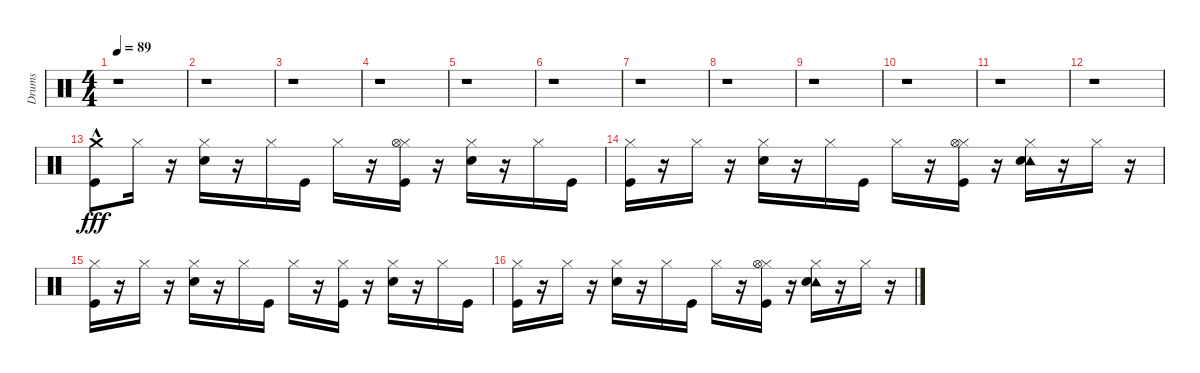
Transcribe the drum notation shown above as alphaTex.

\track ("Drums" "Drums") {instrument percussion}
\staff {score}
\articulation defaults
\ts (4 4)
\tempo 89
\clef neutral
\ks c
r.1{dy fff} |
r.1 |
r.1 |
r.1 |
r.1 |
r.1 |
r.1 |
r.1 |
r.1 |
r.1 |
r.1 |
r.1 |
("Crash medium (hit)"{hac} "Kick (hit)").8 "Hi-Hat (closed)".16 r.16 ("Hi-Hat (closed)" "Snare (hit) 2").16 r.16 "Hi-Hat (closed)".16 "Kick (hit)".16 "Hi-Hat (closed)".16 r.16 ("Hi-Hat (closed)" "Kick (hit)" "Hi-Hat (open)").16 r.16 ("Hi-Hat (closed)" "Snare (hit) 2").16 r.16 "Hi-Hat (closed)".16 "Kick (hit)".16 |
("Kick (hit)" "Hi-Hat (closed)").16 r.16 "Hi-Hat (closed)".16 r.16 ("Hi-Hat (closed)" "Snare (hit) 2").16 r.16 "Hi-Hat (closed)".16 "Kick (hit)".16 "Hi-Hat (closed)".16 r.16 ("Kick (hit)" "Hi-Hat (closed)" "Hi-Hat (open)").16 r.16 ("Hi-Hat (closed)" "Tambourine (hit)" "Snare (hit) 2").16 r.16 "Hi-Hat (closed)".16 r.16 |
("Hi-Hat (closed)" "Kick (hit)").16 r.16 "Hi-Hat (closed)".16 r.16 ("Hi-Hat (closed)" "Snare (hit) 2").16 r.16 "Hi-Hat (closed)".16 "Kick (hit)".16 "Hi-Hat (closed)".16 r.16 ("Hi-Hat (closed)" "Kick (hit)").16 r.16 ("Hi-Hat (closed)" "Snare (hit) 2").16 r.16 "Hi-Hat (closed)".16 "Kick (hit)".16 |
("Kick (hit)" "Hi-Hat (closed)").16 r.16 "Hi-Hat (closed)".16 r.16 ("Hi-Hat (closed)" "Snare (hit) 2").16 r.16 "Hi-Hat (closed)".16 "Kick (hit)".16 "Hi-Hat (closed)".16 r.16 ("Kick (hit)" "Hi-Hat (closed)" "Hi-Hat (open)").16 r.16 ("Tambourine (hit)" "Hi-Hat (closed)" "Snare (hit) 2").16 r.16 "Hi-Hat (closed)".16 r.16
